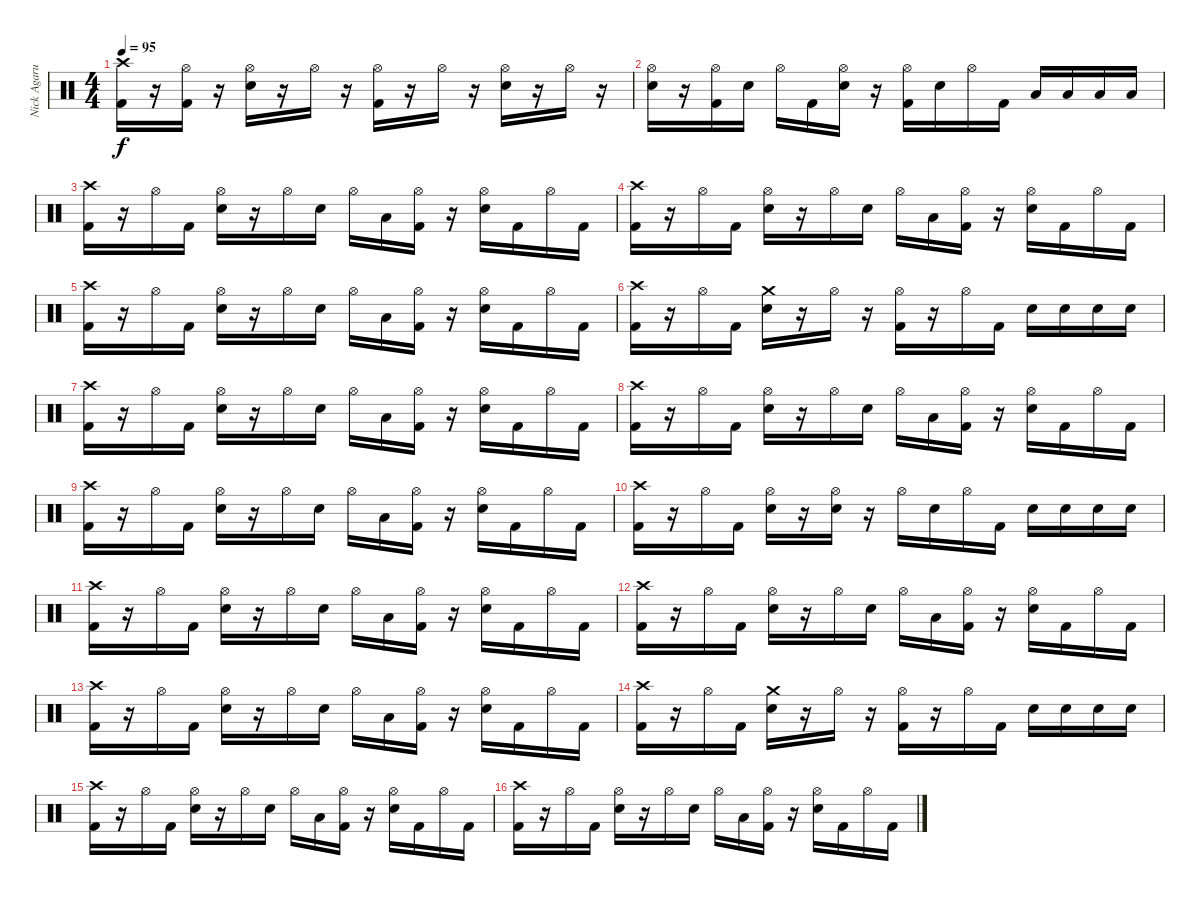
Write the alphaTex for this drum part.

\track ("Nick Agarua" "Nick Agaru") {instrument percussion}
\staff {score}
\articulation defaults
\ts (4 4)
\tempo 95
\clef neutral
\ks c
("Crash high (hit)" "Kick (hit) 2").16{dy f} r.16 ("Hi-Hat (open)" "Kick (hit) 2").16 r.16 ("Hi-Hat (open)" "Electric Snare (hit)").16 r.16 "Hi-Hat (open)".16 r.16 ("Hi-Hat (open)" "Kick (hit) 2").16 r.16 "Hi-Hat (open)".16 r.16 ("Hi-Hat (open)" "Electric Snare (hit)").16 r.16 "Hi-Hat (open)".16 r.16 |
("Hi-Hat (open)" "Electric Snare (hit)").16 r.16 ("Hi-Hat (open)" "Kick (hit) 2").16 "Electric Snare (hit)".16 "Hi-Hat (open)".16 "Kick (hit) 2".16 ("Hi-Hat (open)" "Electric Snare (hit)").16 r.16 ("Hi-Hat (open)" "Kick (hit) 2").16 "Electric Snare (hit)".16 "Hi-Hat (open)".16 "Kick (hit) 2".16 "Low Tom (hit)".16 "Low Tom (hit)".16 "Low Tom (hit)".16 "Low Tom (hit)".16 |
("Crash high (hit)" "Kick (hit) 2").16 r.16 "Hi-Hat (open)".16 "Kick (hit) 2".16 ("Hi-Hat (open)" "Electric Snare (hit)").16 r.16 "Hi-Hat (open)".16 "Electric Snare (hit)".16 "Hi-Hat (open)".16 "Low Tom (hit)".16 ("Hi-Hat (open)" "Kick (hit) 2").16 r.16 ("Hi-Hat (open)" "Electric Snare (hit)").16 "Kick (hit) 2".16 "Hi-Hat (open)".16 "Kick (hit) 2".16 |
("Crash high (hit)" "Kick (hit) 2").16 r.16 "Hi-Hat (open)".16 "Kick (hit) 2".16 ("Hi-Hat (open)" "Electric Snare (hit)").16 r.16 "Hi-Hat (open)".16 "Electric Snare (hit)".16 "Hi-Hat (open)".16 "Low Tom (hit)".16 ("Hi-Hat (open)" "Kick (hit) 2").16 r.16 ("Hi-Hat (open)" "Electric Snare (hit)").16 "Kick (hit) 2".16 "Hi-Hat (open)".16 "Kick (hit) 2".16 |
("Crash high (hit)" "Kick (hit) 2").16 r.16 "Hi-Hat (open)".16 "Kick (hit) 2".16 ("Hi-Hat (open)" "Electric Snare (hit)").16 r.16 "Hi-Hat (open)".16 "Electric Snare (hit)".16 "Hi-Hat (open)".16 "Low Tom (hit)".16 ("Hi-Hat (open)" "Kick (hit) 2").16 r.16 ("Hi-Hat (open)" "Electric Snare (hit)").16 "Kick (hit) 2".16 "Hi-Hat (open)".16 "Kick (hit) 2".16 |
("Crash high (hit)" "Kick (hit) 2").16 r.16 "Hi-Hat (open)".16 "Kick (hit) 2".16 ("Crash medium (hit)" "Electric Snare (hit)").16 r.16 "Hi-Hat (open)".16 r.16 ("Hi-Hat (open)" "Kick (hit) 2").16 r.16 "Hi-Hat (open)".16 "Kick (hit) 2".16 "Electric Snare (hit)".16 "Electric Snare (hit)".16 "Electric Snare (hit)".16 "Electric Snare (hit)".16 |
("Crash high (hit)" "Kick (hit) 2").16 r.16 "Hi-Hat (open)".16 "Kick (hit) 2".16 ("Hi-Hat (open)" "Electric Snare (hit)").16 r.16 "Hi-Hat (open)".16 "Electric Snare (hit)".16 "Hi-Hat (open)".16 "Low Tom (hit)".16 ("Hi-Hat (open)" "Kick (hit) 2").16 r.16 ("Hi-Hat (open)" "Electric Snare (hit)").16 "Kick (hit) 2".16 "Hi-Hat (open)".16 "Kick (hit) 2".16 |
("Crash high (hit)" "Kick (hit) 2").16 r.16 "Hi-Hat (open)".16 "Kick (hit) 2".16 ("Hi-Hat (open)" "Electric Snare (hit)").16 r.16 "Hi-Hat (open)".16 "Electric Snare (hit)".16 "Hi-Hat (open)".16 "Low Tom (hit)".16 ("Hi-Hat (open)" "Kick (hit) 2").16 r.16 ("Hi-Hat (open)" "Electric Snare (hit)").16 "Kick (hit) 2".16 "Hi-Hat (open)".16 "Kick (hit) 2".16 |
("Crash high (hit)" "Kick (hit) 2").16 r.16 "Hi-Hat (open)".16 "Kick (hit) 2".16 ("Hi-Hat (open)" "Electric Snare (hit)").16 r.16 "Hi-Hat (open)".16 "Electric Snare (hit)".16 "Hi-Hat (open)".16 "Low Tom (hit)".16 ("Hi-Hat (open)" "Kick (hit) 2").16 r.16 ("Hi-Hat (open)" "Electric Snare (hit)").16 "Kick (hit) 2".16 "Hi-Hat (open)".16 "Kick (hit) 2".16 |
("Crash high (hit)" "Kick (hit) 2").16 r.16 "Hi-Hat (open)".16 "Kick (hit) 2".16 ("Hi-Hat (open)" "Electric Snare (hit)").16 r.16 ("Hi-Hat (open)" "Electric Snare (hit)").16 r.16 "Hi-Hat (open)".16 "Electric Snare (hit)".16 "Hi-Hat (open)".16 "Kick (hit) 2".16 "Electric Snare (hit)".16 "Electric Snare (hit)".16 "Electric Snare (hit)".16 "Electric Snare (hit)".16 |
("Crash high (hit)" "Kick (hit) 2").16 r.16 "Hi-Hat (open)".16 "Kick (hit) 2".16 ("Hi-Hat (open)" "Electric Snare (hit)").16 r.16 "Hi-Hat (open)".16 "Electric Snare (hit)".16 "Hi-Hat (open)".16 "Low Tom (hit)".16 ("Hi-Hat (open)" "Kick (hit) 2").16 r.16 ("Hi-Hat (open)" "Electric Snare (hit)").16 "Kick (hit) 2".16 "Hi-Hat (open)".16 "Kick (hit) 2".16 |
("Crash high (hit)" "Kick (hit) 2").16 r.16 "Hi-Hat (open)".16 "Kick (hit) 2".16 ("Hi-Hat (open)" "Electric Snare (hit)").16 r.16 "Hi-Hat (open)".16 "Electric Snare (hit)".16 "Hi-Hat (open)".16 "Low Tom (hit)".16 ("Hi-Hat (open)" "Kick (hit) 2").16 r.16 ("Hi-Hat (open)" "Electric Snare (hit)").16 "Kick (hit) 2".16 "Hi-Hat (open)".16 "Kick (hit) 2".16 |
("Crash high (hit)" "Kick (hit) 2").16 r.16 "Hi-Hat (open)".16 "Kick (hit) 2".16 ("Hi-Hat (open)" "Electric Snare (hit)").16 r.16 "Hi-Hat (open)".16 "Electric Snare (hit)".16 "Hi-Hat (open)".16 "Low Tom (hit)".16 ("Hi-Hat (open)" "Kick (hit) 2").16 r.16 ("Hi-Hat (open)" "Electric Snare (hit)").16 "Kick (hit) 2".16 "Hi-Hat (open)".16 "Kick (hit) 2".16 |
("Crash high (hit)" "Kick (hit) 2").16 r.16 "Hi-Hat (open)".16 "Kick (hit) 2".16 ("Crash medium (hit)" "Electric Snare (hit)").16 r.16 "Hi-Hat (open)".16 r.16 ("Hi-Hat (open)" "Kick (hit) 2").16 r.16 "Hi-Hat (open)".16 "Kick (hit) 2".16 "Electric Snare (hit)".16 "Electric Snare (hit)".16 "Electric Snare (hit)".16 "Electric Snare (hit)".16 |
("Crash high (hit)" "Kick (hit) 2").16 r.16 "Hi-Hat (open)".16 "Kick (hit) 2".16 ("Hi-Hat (open)" "Electric Snare (hit)").16 r.16 "Hi-Hat (open)".16 "Electric Snare (hit)".16 "Hi-Hat (open)".16 "Low Tom (hit)".16 ("Hi-Hat (open)" "Kick (hit) 2").16 r.16 ("Hi-Hat (open)" "Electric Snare (hit)").16 "Kick (hit) 2".16 "Hi-Hat (open)".16 "Kick (hit) 2".16 |
("Crash high (hit)" "Kick (hit) 2").16 r.16 "Hi-Hat (open)".16 "Kick (hit) 2".16 ("Hi-Hat (open)" "Electric Snare (hit)").16 r.16 "Hi-Hat (open)".16 "Electric Snare (hit)".16 "Hi-Hat (open)".16 "Low Tom (hit)".16 ("Hi-Hat (open)" "Kick (hit) 2").16 r.16 ("Hi-Hat (open)" "Electric Snare (hit)").16 "Kick (hit) 2".16 "Hi-Hat (open)".16 "Kick (hit) 2".16
